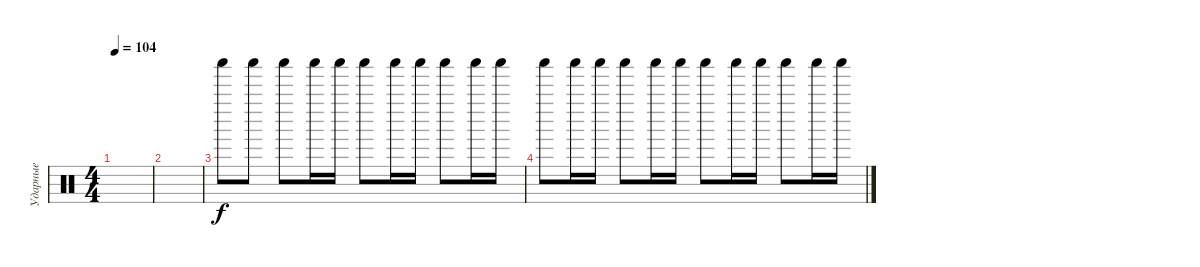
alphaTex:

\track ("Ударные" "Ударные") {instrument percussion}
\staff {score}
\articulation defaults
\ts (4 4)
\tempo 104
\clef neutral
\ks c
|
|
"Shaker (hit)".8 "Shaker (hit)".8 "Shaker (hit)".8 "Shaker (hit)".16 "Shaker (hit)".16 "Shaker (hit)".8 "Shaker (hit)".16 "Shaker (hit)".16 "Shaker (hit)".8 "Shaker (hit)".16 "Shaker (hit)".16 |
"Shaker (hit)".8 "Shaker (hit)".16 "Shaker (hit)".16 "Shaker (hit)".8 "Shaker (hit)".16 "Shaker (hit)".16 "Shaker (hit)".8 "Shaker (hit)".16 "Shaker (hit)".16 "Shaker (hit)".8 "Shaker (hit)".16 "Shaker (hit)".16
